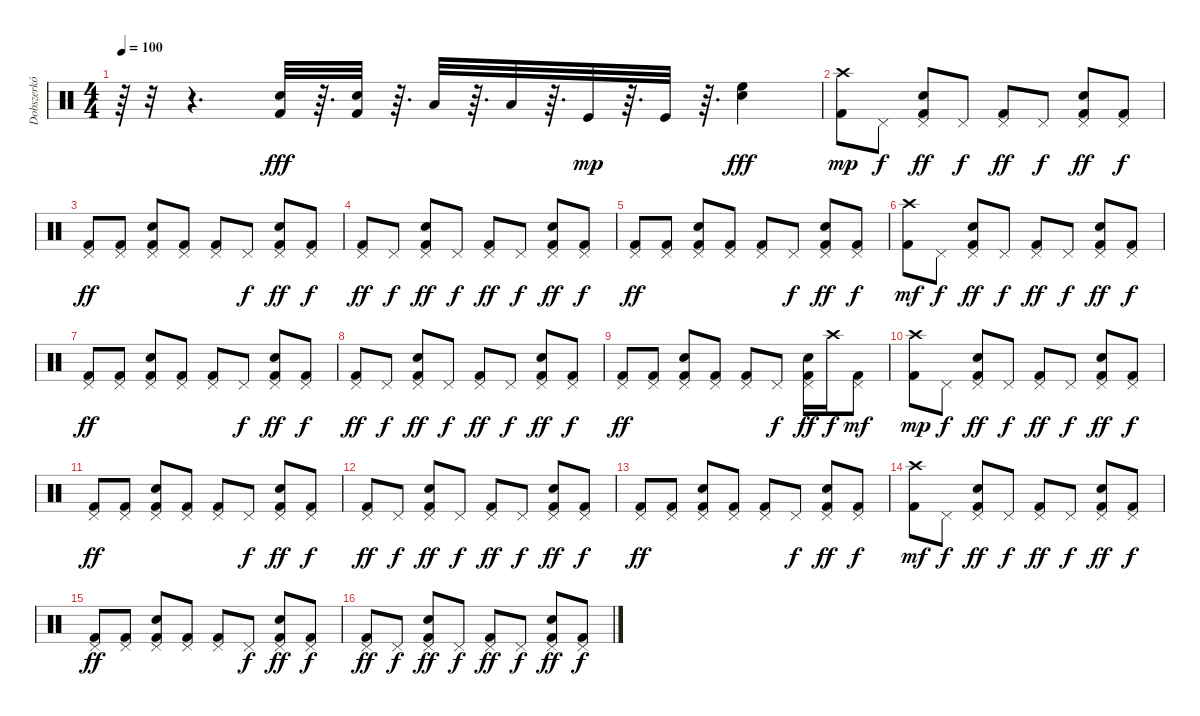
\track ("Dobszerkó" "Dobszerkó") {instrument percussion}
\staff {score}
\articulation defaults
\ts (4 4)
\tempo 100
\clef neutral
\ks c
r.64{dy fff} r.32 r.4{d} ("Electric Snare (hit)" "Kick (hit) 2").32 r.64{d} ("Electric Snare (hit)" "Kick (hit) 2").32 r.64{d} "Low Tom (hit)".32 r.64{d} "Low Tom (hit)".32 r.64{d} "Kick (hit)".32{dy mp} r.64{d} "Kick (hit)".32 r.64{d} ("Electric Snare (hit)" "High Floor Tom (hit)").4{dy fff} |
("Kick (hit) 2" "Crash high (hit)").8{dy mp} "Pedal Hi-Hat (hit)".8{dy f} ("Electric Snare (hit)" "Kick (hit) 2" "Pedal Hi-Hat (hit)").8{dy ff} "Pedal Hi-Hat (hit)".8{dy f} ("Kick (hit) 2" "Pedal Hi-Hat (hit)").8{dy ff} "Pedal Hi-Hat (hit)".8{dy f} ("Electric Snare (hit)" "Kick (hit) 2" "Pedal Hi-Hat (hit)").8{dy ff} ("Kick (hit) 2" "Pedal Hi-Hat (hit)").8{dy f} |
("Kick (hit) 2" "Pedal Hi-Hat (hit)").8{dy ff} ("Kick (hit) 2" "Pedal Hi-Hat (hit)").8 ("Electric Snare (hit)" "Kick (hit) 2" "Pedal Hi-Hat (hit)").8 ("Kick (hit) 2" "Pedal Hi-Hat (hit)").8 ("Kick (hit) 2" "Pedal Hi-Hat (hit)").8 "Pedal Hi-Hat (hit)".8{dy f} ("Electric Snare (hit)" "Kick (hit) 2" "Pedal Hi-Hat (hit)").8{dy ff} ("Kick (hit) 2" "Pedal Hi-Hat (hit)").8{dy f} |
("Kick (hit) 2" "Pedal Hi-Hat (hit)").8{dy ff} "Pedal Hi-Hat (hit)".8{dy f} ("Electric Snare (hit)" "Kick (hit) 2" "Pedal Hi-Hat (hit)").8{dy ff} "Pedal Hi-Hat (hit)".8{dy f} ("Kick (hit) 2" "Pedal Hi-Hat (hit)").8{dy ff} "Pedal Hi-Hat (hit)".8{dy f} ("Electric Snare (hit)" "Kick (hit) 2" "Pedal Hi-Hat (hit)").8{dy ff} ("Kick (hit) 2" "Pedal Hi-Hat (hit)").8{dy f} |
("Kick (hit) 2" "Pedal Hi-Hat (hit)").8{dy ff} ("Kick (hit) 2" "Pedal Hi-Hat (hit)").8 ("Electric Snare (hit)" "Kick (hit) 2" "Pedal Hi-Hat (hit)").8 ("Kick (hit) 2" "Pedal Hi-Hat (hit)").8 ("Kick (hit) 2" "Pedal Hi-Hat (hit)").8 "Pedal Hi-Hat (hit)".8{dy f} ("Electric Snare (hit)" "Kick (hit) 2" "Pedal Hi-Hat (hit)").8{dy ff} ("Kick (hit) 2" "Pedal Hi-Hat (hit)").8{dy f} |
("Kick (hit) 2" "Crash high (hit)").8{dy mf} "Pedal Hi-Hat (hit)".8{dy f} ("Electric Snare (hit)" "Kick (hit) 2" "Pedal Hi-Hat (hit)").8{dy ff} "Pedal Hi-Hat (hit)".8{dy f} ("Kick (hit) 2" "Pedal Hi-Hat (hit)").8{dy ff} "Pedal Hi-Hat (hit)".8{dy f} ("Electric Snare (hit)" "Kick (hit) 2" "Pedal Hi-Hat (hit)").8{dy ff} ("Kick (hit) 2" "Pedal Hi-Hat (hit)").8{dy f} |
("Kick (hit) 2" "Pedal Hi-Hat (hit)").8{dy ff} ("Kick (hit) 2" "Pedal Hi-Hat (hit)").8 ("Electric Snare (hit)" "Kick (hit) 2" "Pedal Hi-Hat (hit)").8 ("Kick (hit) 2" "Pedal Hi-Hat (hit)").8 ("Kick (hit) 2" "Pedal Hi-Hat (hit)").8 "Pedal Hi-Hat (hit)".8{dy f} ("Electric Snare (hit)" "Kick (hit) 2" "Pedal Hi-Hat (hit)").8{dy ff} ("Kick (hit) 2" "Pedal Hi-Hat (hit)").8{dy f} |
("Kick (hit) 2" "Pedal Hi-Hat (hit)").8{dy ff} "Pedal Hi-Hat (hit)".8{dy f} ("Electric Snare (hit)" "Kick (hit) 2" "Pedal Hi-Hat (hit)").8{dy ff} "Pedal Hi-Hat (hit)".8{dy f} ("Kick (hit) 2" "Pedal Hi-Hat (hit)").8{dy ff} "Pedal Hi-Hat (hit)".8{dy f} ("Electric Snare (hit)" "Kick (hit) 2" "Pedal Hi-Hat (hit)").8{dy ff} ("Kick (hit) 2" "Pedal Hi-Hat (hit)").8{dy f} |
("Kick (hit) 2" "Pedal Hi-Hat (hit)").8{dy ff} ("Kick (hit) 2" "Pedal Hi-Hat (hit)").8 ("Electric Snare (hit)" "Kick (hit) 2" "Pedal Hi-Hat (hit)").8 ("Kick (hit) 2" "Pedal Hi-Hat (hit)").8 ("Kick (hit) 2" "Pedal Hi-Hat (hit)").8 "Pedal Hi-Hat (hit)".8{dy f} ("Electric Snare (hit)" "Kick (hit) 2" "Pedal Hi-Hat (hit)").16{dy ff} "Crash high (hit)".16{dy f} ("Kick (hit) 2" "Pedal Hi-Hat (hit)").8{dy mf} |
("Kick (hit) 2" "Crash high (hit)").8{dy mp} "Pedal Hi-Hat (hit)".8{dy f} ("Electric Snare (hit)" "Kick (hit) 2" "Pedal Hi-Hat (hit)").8{dy ff} "Pedal Hi-Hat (hit)".8{dy f} ("Kick (hit) 2" "Pedal Hi-Hat (hit)").8{dy ff} "Pedal Hi-Hat (hit)".8{dy f} ("Electric Snare (hit)" "Kick (hit) 2" "Pedal Hi-Hat (hit)").8{dy ff} ("Kick (hit) 2" "Pedal Hi-Hat (hit)").8{dy f} |
("Kick (hit) 2" "Pedal Hi-Hat (hit)").8{dy ff} ("Kick (hit) 2" "Pedal Hi-Hat (hit)").8 ("Electric Snare (hit)" "Kick (hit) 2" "Pedal Hi-Hat (hit)").8 ("Kick (hit) 2" "Pedal Hi-Hat (hit)").8 ("Kick (hit) 2" "Pedal Hi-Hat (hit)").8 "Pedal Hi-Hat (hit)".8{dy f} ("Electric Snare (hit)" "Kick (hit) 2" "Pedal Hi-Hat (hit)").8{dy ff} ("Kick (hit) 2" "Pedal Hi-Hat (hit)").8{dy f} |
("Kick (hit) 2" "Pedal Hi-Hat (hit)").8{dy ff} "Pedal Hi-Hat (hit)".8{dy f} ("Electric Snare (hit)" "Kick (hit) 2" "Pedal Hi-Hat (hit)").8{dy ff} "Pedal Hi-Hat (hit)".8{dy f} ("Kick (hit) 2" "Pedal Hi-Hat (hit)").8{dy ff} "Pedal Hi-Hat (hit)".8{dy f} ("Electric Snare (hit)" "Kick (hit) 2" "Pedal Hi-Hat (hit)").8{dy ff} ("Kick (hit) 2" "Pedal Hi-Hat (hit)").8{dy f} |
("Kick (hit) 2" "Pedal Hi-Hat (hit)").8{dy ff} ("Kick (hit) 2" "Pedal Hi-Hat (hit)").8 ("Electric Snare (hit)" "Kick (hit) 2" "Pedal Hi-Hat (hit)").8 ("Kick (hit) 2" "Pedal Hi-Hat (hit)").8 ("Kick (hit) 2" "Pedal Hi-Hat (hit)").8 "Pedal Hi-Hat (hit)".8{dy f} ("Electric Snare (hit)" "Kick (hit) 2" "Pedal Hi-Hat (hit)").8{dy ff} ("Kick (hit) 2" "Pedal Hi-Hat (hit)").8{dy f} |
("Kick (hit) 2" "Crash high (hit)").8{dy mf} "Pedal Hi-Hat (hit)".8{dy f} ("Electric Snare (hit)" "Kick (hit) 2" "Pedal Hi-Hat (hit)").8{dy ff} "Pedal Hi-Hat (hit)".8{dy f} ("Kick (hit) 2" "Pedal Hi-Hat (hit)").8{dy ff} "Pedal Hi-Hat (hit)".8{dy f} ("Electric Snare (hit)" "Kick (hit) 2" "Pedal Hi-Hat (hit)").8{dy ff} ("Kick (hit) 2" "Pedal Hi-Hat (hit)").8{dy f} |
("Kick (hit) 2" "Pedal Hi-Hat (hit)").8{dy ff} ("Kick (hit) 2" "Pedal Hi-Hat (hit)").8 ("Electric Snare (hit)" "Kick (hit) 2" "Pedal Hi-Hat (hit)").8 ("Kick (hit) 2" "Pedal Hi-Hat (hit)").8 ("Kick (hit) 2" "Pedal Hi-Hat (hit)").8 "Pedal Hi-Hat (hit)".8{dy f} ("Electric Snare (hit)" "Kick (hit) 2" "Pedal Hi-Hat (hit)").8{dy ff} ("Kick (hit) 2" "Pedal Hi-Hat (hit)").8{dy f} |
("Kick (hit) 2" "Pedal Hi-Hat (hit)").8{dy ff} "Pedal Hi-Hat (hit)".8{dy f} ("Electric Snare (hit)" "Kick (hit) 2" "Pedal Hi-Hat (hit)").8{dy ff} "Pedal Hi-Hat (hit)".8{dy f} ("Kick (hit) 2" "Pedal Hi-Hat (hit)").8{dy ff} "Pedal Hi-Hat (hit)".8{dy f} ("Electric Snare (hit)" "Kick (hit) 2" "Pedal Hi-Hat (hit)").8{dy ff} ("Kick (hit) 2" "Pedal Hi-Hat (hit)").8{dy f}
